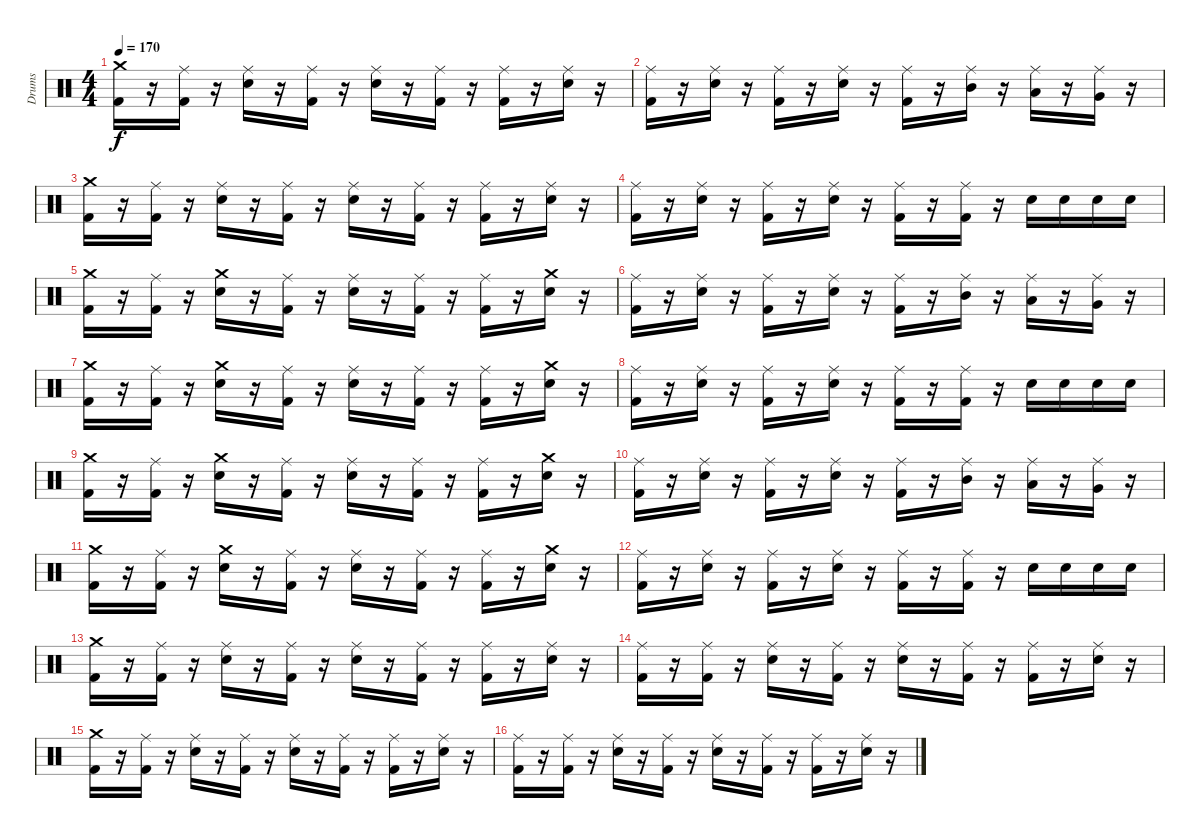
\track ("Drums" "Drums") {instrument percussion}
\staff {score}
\articulation defaults
\ts (4 4)
\tempo 170
\clef neutral
\ks c
("Crash medium (hit)" "Kick (hit) 2").16{dy f} r.16 ("Ride (middle)" "Kick (hit) 2").16 r.16 ("Ride (middle)" "Snare (hit) 2").16 r.16 ("Ride (middle)" "Kick (hit) 2").16 r.16 ("Ride (middle)" "Snare (hit) 2").16 r.16 ("Ride (middle)" "Kick (hit) 2").16 r.16 ("Ride (middle)" "Kick (hit) 2").16 r.16 ("Ride (middle)" "Snare (hit) 2").16 r.16 |
("Ride (middle)" "Kick (hit) 2").16 r.16 ("Ride (middle)" "Snare (hit) 2").16 r.16 ("Ride (middle)" "Kick (hit) 2").16 r.16 ("Ride (middle)" "Snare (hit) 2").16 r.16 ("Ride (middle)" "Kick (hit) 2").16 r.16 ("Ride (middle)" "Mid Tom (hit)").16 r.16 ("Ride (middle)" "Low Tom (hit)").16 r.16 ("Ride (middle)" "Very Low Tom (hit)").16 r.16 |
("Crash medium (hit)" "Kick (hit) 2").16 r.16 ("Ride (middle)" "Kick (hit) 2").16 r.16 ("Ride (middle)" "Snare (hit) 2").16 r.16 ("Ride (middle)" "Kick (hit) 2").16 r.16 ("Ride (middle)" "Snare (hit) 2").16 r.16 ("Ride (middle)" "Kick (hit) 2").16 r.16 ("Ride (middle)" "Kick (hit) 2").16 r.16 ("Ride (middle)" "Snare (hit) 2").16 r.16 |
("Ride (middle)" "Kick (hit) 2").16 r.16 ("Ride (middle)" "Snare (hit) 2").16 r.16 ("Ride (middle)" "Kick (hit) 2").16 r.16 ("Ride (middle)" "Snare (hit) 2").16 r.16 ("Ride (middle)" "Kick (hit) 2").16 r.16 ("Ride (middle)" "Kick (hit) 2").16 r.16 "Snare (hit) 2".16 "Snare (hit) 2".16 "Snare (hit) 2".16 "Snare (hit) 2".16 |
("Crash medium (hit)" "Kick (hit) 2").16 r.16 ("Ride (middle)" "Kick (hit) 2").16 r.16 ("Crash medium (hit)" "Snare (hit) 2").16 r.16 ("Ride (middle)" "Kick (hit) 2").16 r.16 ("Ride (middle)" "Snare (hit) 2").16 r.16 ("Ride (middle)" "Kick (hit) 2").16 r.16 ("Ride (middle)" "Kick (hit) 2").16 r.16 ("Crash medium (hit)" "Snare (hit) 2").16 r.16 |
("Ride (middle)" "Kick (hit) 2").16 r.16 ("Ride (middle)" "Snare (hit) 2").16 r.16 ("Ride (middle)" "Kick (hit) 2").16 r.16 ("Ride (middle)" "Snare (hit) 2").16 r.16 ("Ride (middle)" "Kick (hit) 2").16 r.16 ("Ride (middle)" "Mid Tom (hit)").16 r.16 ("Ride (middle)" "Low Tom (hit)").16 r.16 ("Ride (middle)" "Very Low Tom (hit)").16 r.16 |
("Crash medium (hit)" "Kick (hit) 2").16 r.16 ("Ride (middle)" "Kick (hit) 2").16 r.16 ("Crash medium (hit)" "Snare (hit) 2").16 r.16 ("Ride (middle)" "Kick (hit) 2").16 r.16 ("Ride (middle)" "Snare (hit) 2").16 r.16 ("Ride (middle)" "Kick (hit) 2").16 r.16 ("Ride (middle)" "Kick (hit) 2").16 r.16 ("Crash medium (hit)" "Snare (hit) 2").16 r.16 |
("Ride (middle)" "Kick (hit) 2").16 r.16 ("Ride (middle)" "Snare (hit) 2").16 r.16 ("Ride (middle)" "Kick (hit) 2").16 r.16 ("Ride (middle)" "Snare (hit) 2").16 r.16 ("Ride (middle)" "Kick (hit) 2").16 r.16 ("Ride (middle)" "Kick (hit) 2").16 r.16 "Snare (hit) 2".16 "Snare (hit) 2".16 "Snare (hit) 2".16 "Snare (hit) 2".16 |
("Crash medium (hit)" "Kick (hit) 2").16 r.16 ("Ride (middle)" "Kick (hit) 2").16 r.16 ("Crash medium (hit)" "Snare (hit) 2").16 r.16 ("Ride (middle)" "Kick (hit) 2").16 r.16 ("Ride (middle)" "Snare (hit) 2").16 r.16 ("Ride (middle)" "Kick (hit) 2").16 r.16 ("Ride (middle)" "Kick (hit) 2").16 r.16 ("Crash medium (hit)" "Snare (hit) 2").16 r.16 |
("Ride (middle)" "Kick (hit) 2").16 r.16 ("Ride (middle)" "Snare (hit) 2").16 r.16 ("Ride (middle)" "Kick (hit) 2").16 r.16 ("Ride (middle)" "Snare (hit) 2").16 r.16 ("Ride (middle)" "Kick (hit) 2").16 r.16 ("Ride (middle)" "Mid Tom (hit)").16 r.16 ("Ride (middle)" "Low Tom (hit)").16 r.16 ("Ride (middle)" "Very Low Tom (hit)").16 r.16 |
("Crash medium (hit)" "Kick (hit) 2").16 r.16 ("Ride (middle)" "Kick (hit) 2").16 r.16 ("Crash medium (hit)" "Snare (hit) 2").16 r.16 ("Ride (middle)" "Kick (hit) 2").16 r.16 ("Ride (middle)" "Snare (hit) 2").16 r.16 ("Ride (middle)" "Kick (hit) 2").16 r.16 ("Ride (middle)" "Kick (hit) 2").16 r.16 ("Crash medium (hit)" "Snare (hit) 2").16 r.16 |
("Ride (middle)" "Kick (hit) 2").16 r.16 ("Ride (middle)" "Snare (hit) 2").16 r.16 ("Ride (middle)" "Kick (hit) 2").16 r.16 ("Ride (middle)" "Snare (hit) 2").16 r.16 ("Ride (middle)" "Kick (hit) 2").16 r.16 ("Ride (middle)" "Kick (hit) 2").16 r.16 "Snare (hit) 2".16 "Snare (hit) 2".16 "Snare (hit) 2".16 "Snare (hit) 2".16 |
("Crash medium (hit)" "Kick (hit) 2").16 r.16 ("Ride (middle)" "Kick (hit) 2").16 r.16 ("Ride (middle)" "Snare (hit) 2").16 r.16 ("Ride (middle)" "Kick (hit) 2").16 r.16 ("Ride (middle)" "Snare (hit) 2").16 r.16 ("Ride (middle)" "Kick (hit) 2").16 r.16 ("Ride (middle)" "Kick (hit) 2").16 r.16 ("Ride (middle)" "Snare (hit) 2").16 r.16 |
("Ride (middle)" "Kick (hit) 2").16 r.16 ("Ride (middle)" "Kick (hit) 2").16 r.16 ("Ride (middle)" "Snare (hit) 2").16 r.16 ("Ride (middle)" "Kick (hit) 2").16 r.16 ("Ride (middle)" "Snare (hit) 2").16 r.16 ("Ride (middle)" "Kick (hit) 2").16 r.16 ("Ride (middle)" "Kick (hit) 2").16 r.16 ("Ride (middle)" "Snare (hit) 2").16 r.16 |
("Crash medium (hit)" "Kick (hit) 2").16 r.16 ("Ride (middle)" "Kick (hit) 2").16 r.16 ("Ride (middle)" "Snare (hit) 2").16 r.16 ("Ride (middle)" "Kick (hit) 2").16 r.16 ("Ride (middle)" "Snare (hit) 2").16 r.16 ("Ride (middle)" "Kick (hit) 2").16 r.16 ("Ride (middle)" "Kick (hit) 2").16 r.16 ("Ride (middle)" "Snare (hit) 2").16 r.16 |
("Ride (middle)" "Kick (hit) 2").16 r.16 ("Ride (middle)" "Kick (hit) 2").16 r.16 ("Ride (middle)" "Snare (hit) 2").16 r.16 ("Ride (middle)" "Kick (hit) 2").16 r.16 ("Ride (middle)" "Snare (hit) 2").16 r.16 ("Ride (middle)" "Kick (hit) 2").16 r.16 ("Ride (middle)" "Kick (hit) 2").16 r.16 ("Ride (middle)" "Snare (hit) 2").16 r.16
